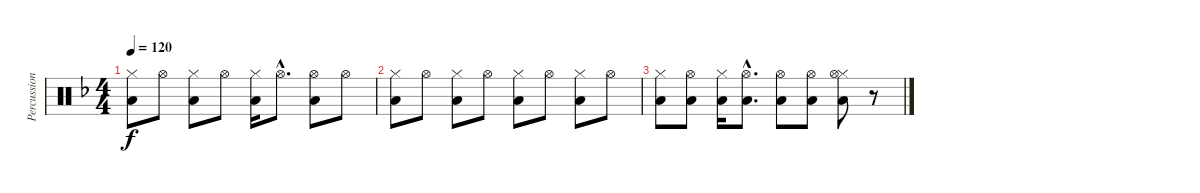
\track ("Percussion" "Percussion") {instrument percussion}
\staff {score}
\articulation defaults
\ts (4 4)
\tempo 120
\clef neutral
\ks f
("Hi-Hat (closed)" "Low Floor Tom (hit)").8{dy f} "Hi-Hat (open)".8 ("Hi-Hat (closed)" "Low Floor Tom (hit)").8 "Hi-Hat (open)".8 ("Hi-Hat (closed)" "Low Floor Tom (hit)").16 "Hi-Hat (open)"{hac}.8{d} ("Hi-Hat (open)" "Low Floor Tom (hit)").8 "Hi-Hat (open)".8 |
("Hi-Hat (closed)" "Low Floor Tom (hit)").8 "Hi-Hat (open)".8 ("Hi-Hat (closed)" "Low Floor Tom (hit)").8 "Hi-Hat (open)".8 ("Hi-Hat (closed)" "Low Floor Tom (hit)").8 "Hi-Hat (open)".8 ("Hi-Hat (closed)" "Low Floor Tom (hit)").8 "Hi-Hat (open)".8 |
("Hi-Hat (closed)" "Low Floor Tom (hit)").8 ("Hi-Hat (open)" "Low Floor Tom (hit)").8 ("Hi-Hat (closed)" "Low Floor Tom (hit)").16 ("Hi-Hat (open)"{hac} "Low Floor Tom (hit)"{hac}).8{d} ("Hi-Hat (open)" "Low Floor Tom (hit)").8 ("Hi-Hat (open)" "Low Floor Tom (hit)").8 ("Hi-Hat (closed)" "Hi-Hat (open)" "Low Floor Tom (hit)").8 r.8
